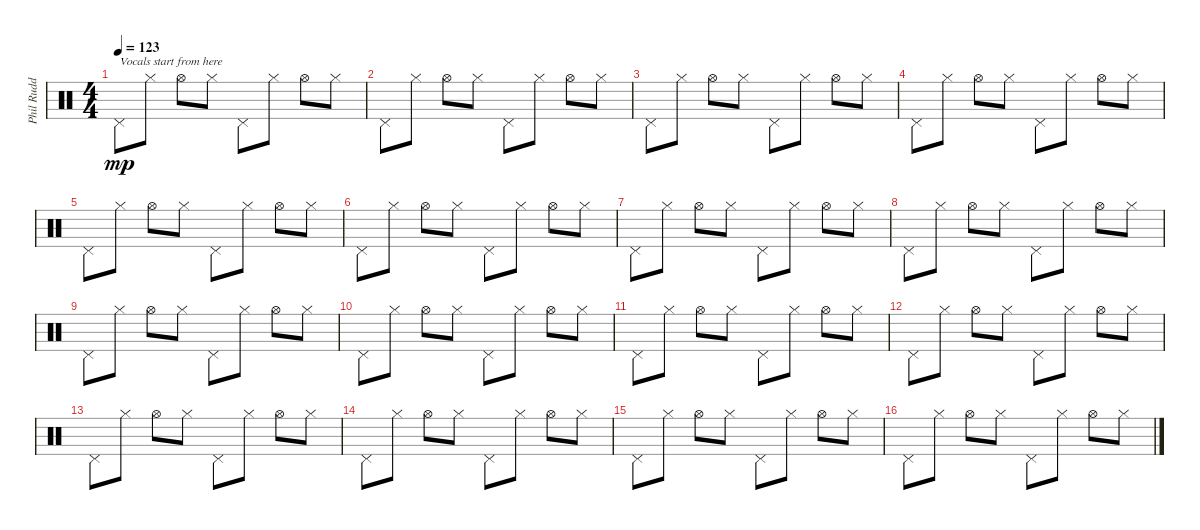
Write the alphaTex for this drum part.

\track ("Phil Rudd (HiHat)" "Phil Rudd ") {instrument percussion}
\staff {score}
\articulation defaults
\ts (4 4)
\tempo 123
\clef neutral
\ks c "Pedal Hi-Hat (hit)".8{txt "Vocals start from here" dy mp} "Hi-Hat (closed)".8 "Hi-Hat (open)".8 "Hi-Hat (closed)".8 "Pedal Hi-Hat (hit)".8 "Hi-Hat (closed)".8 "Hi-Hat (open)".8 "Hi-Hat (closed)".8
|
"Pedal Hi-Hat (hit)".8 "Hi-Hat (closed)".8 "Hi-Hat (open)".8 "Hi-Hat (closed)".8 "Pedal Hi-Hat (hit)".8 "Hi-Hat (closed)".8 "Hi-Hat (open)".8 "Hi-Hat (closed)".8 |
"Pedal Hi-Hat (hit)".8 "Hi-Hat (closed)".8 "Hi-Hat (open)".8 "Hi-Hat (closed)".8 "Pedal Hi-Hat (hit)".8 "Hi-Hat (closed)".8 "Hi-Hat (open)".8 "Hi-Hat (closed)".8 |
"Pedal Hi-Hat (hit)".8 "Hi-Hat (closed)".8 "Hi-Hat (open)".8 "Hi-Hat (closed)".8 "Pedal Hi-Hat (hit)".8 "Hi-Hat (closed)".8 "Hi-Hat (open)".8 "Hi-Hat (closed)".8 |
"Pedal Hi-Hat (hit)".8 "Hi-Hat (closed)".8 "Hi-Hat (open)".8 "Hi-Hat (closed)".8 "Pedal Hi-Hat (hit)".8 "Hi-Hat (closed)".8 "Hi-Hat (open)".8 "Hi-Hat (closed)".8 |
"Pedal Hi-Hat (hit)".8 "Hi-Hat (closed)".8 "Hi-Hat (open)".8 "Hi-Hat (closed)".8 "Pedal Hi-Hat (hit)".8 "Hi-Hat (closed)".8 "Hi-Hat (open)".8 "Hi-Hat (closed)".8 |
"Pedal Hi-Hat (hit)".8 "Hi-Hat (closed)".8 "Hi-Hat (open)".8 "Hi-Hat (closed)".8 "Pedal Hi-Hat (hit)".8 "Hi-Hat (closed)".8 "Hi-Hat (open)".8 "Hi-Hat (closed)".8 |
"Pedal Hi-Hat (hit)".8 "Hi-Hat (closed)".8 "Hi-Hat (open)".8 "Hi-Hat (closed)".8 "Pedal Hi-Hat (hit)".8 "Hi-Hat (closed)".8 "Hi-Hat (open)".8 "Hi-Hat (closed)".8 |
"Pedal Hi-Hat (hit)".8 "Hi-Hat (closed)".8 "Hi-Hat (open)".8 "Hi-Hat (closed)".8 "Pedal Hi-Hat (hit)".8 "Hi-Hat (closed)".8 "Hi-Hat (open)".8 "Hi-Hat (closed)".8 |
"Pedal Hi-Hat (hit)".8 "Hi-Hat (closed)".8 "Hi-Hat (open)".8 "Hi-Hat (closed)".8 "Pedal Hi-Hat (hit)".8 "Hi-Hat (closed)".8 "Hi-Hat (open)".8 "Hi-Hat (closed)".8 |
"Pedal Hi-Hat (hit)".8 "Hi-Hat (closed)".8 "Hi-Hat (open)".8 "Hi-Hat (closed)".8 "Pedal Hi-Hat (hit)".8 "Hi-Hat (closed)".8 "Hi-Hat (open)".8 "Hi-Hat (closed)".8 |
"Pedal Hi-Hat (hit)".8 "Hi-Hat (closed)".8 "Hi-Hat (open)".8 "Hi-Hat (closed)".8 "Pedal Hi-Hat (hit)".8 "Hi-Hat (closed)".8 "Hi-Hat (open)".8 "Hi-Hat (closed)".8 |
"Pedal Hi-Hat (hit)".8 "Hi-Hat (closed)".8 "Hi-Hat (open)".8 "Hi-Hat (closed)".8 "Pedal Hi-Hat (hit)".8 "Hi-Hat (closed)".8 "Hi-Hat (open)".8 "Hi-Hat (closed)".8 |
"Pedal Hi-Hat (hit)".8 "Hi-Hat (closed)".8 "Hi-Hat (open)".8 "Hi-Hat (closed)".8 "Pedal Hi-Hat (hit)".8 "Hi-Hat (closed)".8 "Hi-Hat (open)".8 "Hi-Hat (closed)".8 |
"Pedal Hi-Hat (hit)".8 "Hi-Hat (closed)".8 "Hi-Hat (open)".8 "Hi-Hat (closed)".8 "Pedal Hi-Hat (hit)".8 "Hi-Hat (closed)".8 "Hi-Hat (open)".8 "Hi-Hat (closed)".8 |
"Pedal Hi-Hat (hit)".8 "Hi-Hat (closed)".8 "Hi-Hat (open)".8 "Hi-Hat (closed)".8 "Pedal Hi-Hat (hit)".8 "Hi-Hat (closed)".8 "Hi-Hat (open)".8 "Hi-Hat (closed)".8
